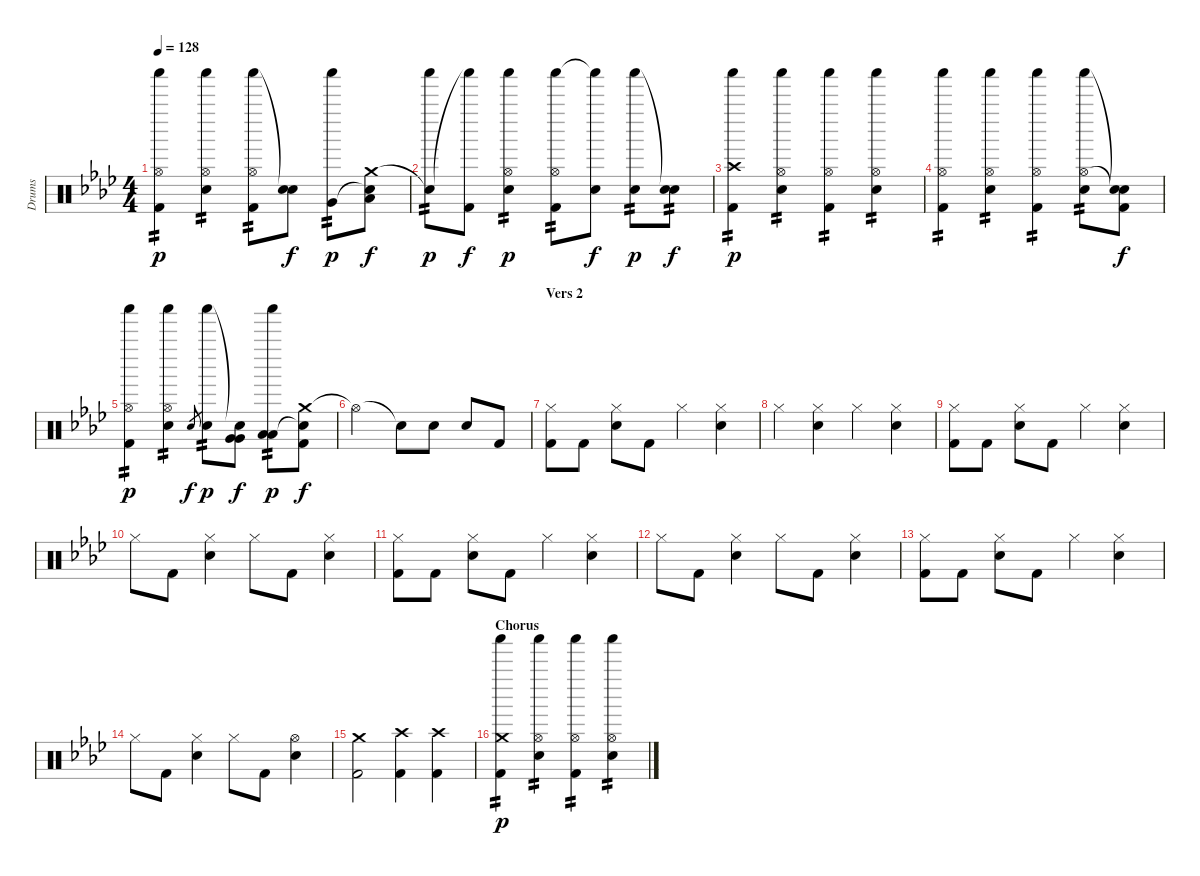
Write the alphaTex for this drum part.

\track ("Drums" "Drums") {instrument percussion}
\staff {score}
\articulation defaults
\ts (4 4)
\tempo 128
\clef neutral
\ks fminor
("Shaker (hit)" "Hi-Hat (open)" "Kick (hit) 2").4{tp 2 dy p} ("Shaker (hit)" "Hi-Hat (open)" "Electric Snare (hit)").4{tp 2} ("Shaker (hit)" "Hi-Hat (open)" "Kick (hit) 2").8{tp 2} ("Snare (hit)"{t} "Electric Snare (hit)").8{dy f} ("Shaker (hit)" "Very Low Tom (hit)").8{tp 2 dy p} ("Crash medium (hit)" "Snare (hit)"{t} "Low Floor Tom (hit)").8{dy f} |
("Snare (hit)"{t} "Shaker (hit)").8{tp 2 dy p} ("Shaker (hit)"{t} "Kick (hit) 2").8{dy f} ("Shaker (hit)" "Hi-Hat (open)" "Electric Snare (hit)").4{tp 2 dy p} ("Shaker (hit)" "Hi-Hat (open)" "Kick (hit) 2").8{tp 2} ("Shaker (hit)"{t} "Electric Snare (hit)").8{dy f} ("Shaker (hit)" "Electric Snare (hit)").8{tp 2 dy p} ("Snare (hit)"{t} "Electric Snare (hit)").8{tp 2 dy f} |
("Crash high (hit)" "Shaker (hit)" "Kick (hit) 2").4{tp 2 dy p} ("Shaker (hit)" "Hi-Hat (open)" "Electric Snare (hit)").4{tp 2} ("Shaker (hit)" "Hi-Hat (open)" "Kick (hit) 2").4{tp 2} ("Shaker (hit)" "Hi-Hat (open)" "Electric Snare (hit)").4{tp 2} |
("Shaker (hit)" "Hi-Hat (open)" "Kick (hit) 2").4{tp 2} ("Shaker (hit)" "Hi-Hat (open)" "Electric Snare (hit)").4{tp 2} ("Shaker (hit)" "Hi-Hat (open)" "Kick (hit) 2").4{tp 2} ("Shaker (hit)" "Hi-Hat (open)" "Electric Snare (hit)").8{tp 2} ("Snare (hit)"{t} "Snare (hit)"{t} "Kick (hit) 2").8{dy f} |
("Shaker (hit)" "Hi-Hat (open)" "Kick (hit) 2").4{tp 2 dy p} ("Shaker (hit)" "Hi-Hat (open)" "Electric Snare (hit)").4{tp 2} "Electric Snare (hit)"{sl}.8{gr dy f} ("Shaker (hit)" "Electric Snare (hit)").8{tp 2 dy p} ("Snare (hit)"{t} "Very Low Tom (hit)" "Very Low Tom (hit)").8{dy f} ("Shaker (hit)" "Low Floor Tom (hit)" "Low Floor Tom (hit)").8{tp 2 dy p} ("Crash medium (hit)" "Snare (hit)"{t} "Kick (hit) 2").8{dy f} |
"Hi-Hat (open)"{t}.2 "Snare (hit)"{t}.8 "Electric Snare (hit)".8 "Electric Snare (hit)".8 "Kick (hit) 2".8 |
\section ("" "Vers 2")
("Hi-Hat (closed)" "Kick (hit) 2").8 "Kick (hit) 2".8 ("Hi-Hat (closed)" "Electric Snare (hit)").8 "Kick (hit) 2".8 "Hi-Hat (closed)".4 ("Hi-Hat (closed)" "Electric Snare (hit)").4 |
"Hi-Hat (closed)".4 ("Hi-Hat (closed)" "Electric Snare (hit)").4 "Hi-Hat (closed)".4 ("Hi-Hat (closed)" "Electric Snare (hit)").4 |
("Hi-Hat (closed)" "Kick (hit) 2").8 "Kick (hit) 2".8 ("Hi-Hat (closed)" "Electric Snare (hit)").8 "Kick (hit) 2".8 "Hi-Hat (closed)".4 ("Hi-Hat (closed)" "Electric Snare (hit)").4 |
"Hi-Hat (closed)".8 "Kick (hit) 2".8 ("Hi-Hat (closed)" "Electric Snare (hit)").4 "Hi-Hat (closed)".8 "Kick (hit) 2".8 ("Hi-Hat (closed)" "Electric Snare (hit)").4 |
("Hi-Hat (closed)" "Kick (hit) 2").8 "Kick (hit) 2".8 ("Hi-Hat (closed)" "Electric Snare (hit)").8 "Kick (hit) 2".8 "Hi-Hat (closed)".4 ("Hi-Hat (closed)" "Electric Snare (hit)").4 |
"Hi-Hat (closed)".8 "Kick (hit) 2".8 ("Hi-Hat (closed)" "Electric Snare (hit)").4 "Hi-Hat (closed)".8 "Kick (hit) 2".8 ("Hi-Hat (closed)" "Electric Snare (hit)").4 |
("Hi-Hat (closed)" "Kick (hit) 2").8 "Kick (hit) 2".8 ("Hi-Hat (closed)" "Electric Snare (hit)").8 "Kick (hit) 2".8 "Hi-Hat (closed)".4 ("Hi-Hat (closed)" "Electric Snare (hit)").4 |
"Hi-Hat (closed)".8 "Kick (hit) 2".8 ("Hi-Hat (closed)" "Electric Snare (hit)").4 "Hi-Hat (closed)".8 "Kick (hit) 2".8 ("Hi-Hat (open)" "Electric Snare (hit)").4 |
("Crash medium (hit)" "Kick (hit) 2").2 ("Crash high (hit)" "Kick (hit) 2").4 ("Crash high (hit)" "Kick (hit) 2").4 |
\section ("" "Chorus")
("Crash medium (hit)" "Shaker (hit)" "Kick (hit) 2").4{tp 2 dy p} ("Shaker (hit)" "Hi-Hat (open)" "Electric Snare (hit)").4{tp 2} ("Shaker (hit)" "Hi-Hat (open)" "Kick (hit) 2").4{tp 2} ("Shaker (hit)" "Hi-Hat (open)" "Electric Snare (hit)").4{tp 2}
